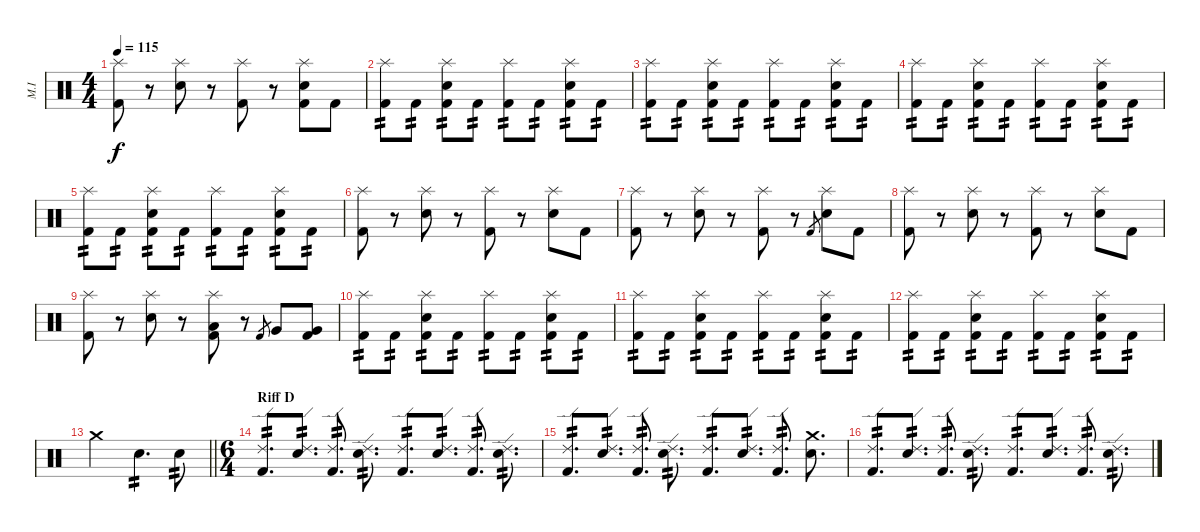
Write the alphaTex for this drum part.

\track ("M.I" "M.I") {instrument percussion}
\staff {score}
\articulation defaults
\ts (4 4)
\tempo 115
\clef neutral
\ks c
("Splash (hit)" "Kick (hit) 2").8{dy f} r.8 ("Splash (hit)" "Snare (hit) 2").8 r.8 ("Splash (hit)" "Kick (hit) 2").8 r.8 ("Splash (hit)" "Snare (hit) 2" "Kick (hit) 2").8 "Kick (hit) 2".8 |
("Splash (hit)" "Kick (hit) 2").8{tp 2} "Kick (hit) 2".8{tp 2} ("Splash (hit)" "Snare (hit) 2" "Kick (hit) 2").8{tp 2} "Kick (hit) 2".8{tp 2} ("Splash (hit)" "Kick (hit) 2").8{tp 2} "Kick (hit) 2".8{tp 2} ("Splash (hit)" "Snare (hit) 2" "Kick (hit) 2").8{tp 2} "Kick (hit) 2".8{tp 2} |
("Splash (hit)" "Kick (hit) 2").8{tp 2} "Kick (hit) 2".8{tp 2} ("Splash (hit)" "Snare (hit) 2" "Kick (hit) 2").8{tp 2} "Kick (hit) 2".8{tp 2} ("Splash (hit)" "Kick (hit) 2").8{tp 2} "Kick (hit) 2".8{tp 2} ("Splash (hit)" "Snare (hit) 2" "Kick (hit) 2").8{tp 2} "Kick (hit) 2".8{tp 2} |
("Splash (hit)" "Kick (hit) 2").8{tp 2} "Kick (hit) 2".8{tp 2} ("Splash (hit)" "Snare (hit) 2" "Kick (hit) 2").8{tp 2} "Kick (hit) 2".8{tp 2} ("Splash (hit)" "Kick (hit) 2").8{tp 2} "Kick (hit) 2".8{tp 2} ("Splash (hit)" "Snare (hit) 2" "Kick (hit) 2").8{tp 2} "Kick (hit) 2".8{tp 2} |
("Splash (hit)" "Kick (hit) 2").8{tp 2} "Kick (hit) 2".8{tp 2} ("Splash (hit)" "Snare (hit) 2" "Kick (hit) 2").8{tp 2} "Kick (hit) 2".8{tp 2} ("Splash (hit)" "Kick (hit) 2").8{tp 2} "Kick (hit) 2".8{tp 2} ("Splash (hit)" "Snare (hit) 2" "Kick (hit) 2").8{tp 2} "Kick (hit) 2".8{tp 2} |
("Splash (hit)" "Kick (hit) 2").8 r.8 ("Splash (hit)" "Snare (hit) 2").8 r.8 ("Splash (hit)" "Kick (hit) 2").8 r.8 ("Splash (hit)" "Snare (hit) 2").8 "Kick (hit) 2".8 |
("Splash (hit)" "Kick (hit) 2").8 r.8 ("Splash (hit)" "Snare (hit) 2").8 r.8 ("Splash (hit)" "Kick (hit) 2").8 r.8 "Kick (hit) 2".8{gr} ("Splash (hit)" "Snare (hit) 2").8 "Kick (hit) 2".8 |
("Splash (hit)" "Kick (hit) 2").8 r.8 ("Splash (hit)" "Snare (hit) 2").8 r.8 ("Splash (hit)" "Kick (hit) 2").8 r.8 ("Splash (hit)" "Snare (hit) 2").8 "Kick (hit) 2".8 |
("Splash (hit)" "Kick (hit) 2").8 r.8 ("Splash (hit)" "Snare (hit) 2").8 r.8 ("Splash (hit)" "Low Tom (hit)" "Kick (hit) 2").8 r.8 "Kick (hit) 2".8{gr} "Very Low Tom (hit)".8 ("Very Low Tom (hit)" "Kick (hit) 2").8 |
("Splash (hit)" "Kick (hit) 2").8{tp 2} "Kick (hit) 2".8{tp 2} ("Splash (hit)" "Snare (hit) 2" "Kick (hit) 2").8{tp 2} "Kick (hit) 2".8{tp 2} ("Splash (hit)" "Kick (hit) 2").8{tp 2} "Kick (hit) 2".8{tp 2} ("Splash (hit)" "Snare (hit) 2" "Kick (hit) 2").8{tp 2} "Kick (hit) 2".8{tp 2} |
("Splash (hit)" "Kick (hit) 2").8{tp 2} "Kick (hit) 2".8{tp 2} ("Splash (hit)" "Snare (hit) 2" "Kick (hit) 2").8{tp 2} "Kick (hit) 2".8{tp 2} ("Splash (hit)" "Kick (hit) 2").8{tp 2} "Kick (hit) 2".8{tp 2} ("Splash (hit)" "Snare (hit) 2" "Kick (hit) 2").8{tp 2} "Kick (hit) 2".8{tp 2} |
("Splash (hit)" "Kick (hit) 2").8{tp 2} "Kick (hit) 2".8{tp 2} ("Splash (hit)" "Snare (hit) 2" "Kick (hit) 2").8{tp 2} "Kick (hit) 2".8{tp 2} ("Splash (hit)" "Kick (hit) 2").8{tp 2} "Kick (hit) 2".8{tp 2} ("Splash (hit)" "Snare (hit) 2" "Kick (hit) 2").8{tp 2} "Kick (hit) 2".8{tp 2} |
\barLineRight lightlight "Crash medium (hit)".2 "Snare (hit) 2".4{d tp 2} "Snare (hit) 2".8{tp 2}
|
\ts (6 4)
\section ("" "Riff D")
("Ride (edge) 2" "Kick (hit) 2").8{d tp 2} ("Ride (edge) 2" "Snare (hit) 2").8{d tp 2} ("Ride (edge) 2" "Kick (hit) 2").8{d tp 2} ("Ride (edge) 2" "Snare (hit) 2").8{d tp 2} ("Ride (edge) 2" "Kick (hit) 2").8{d tp 2} ("Ride (edge) 2" "Snare (hit) 2").8{d tp 2} ("Ride (edge) 2" "Kick (hit) 2").8{d tp 2} ("Ride (edge) 2" "Snare (hit) 2").8{d tp 2} |
("Ride (edge) 2" "Kick (hit) 2").8{d tp 2} ("Ride (edge) 2" "Snare (hit) 2").8{d tp 2} ("Ride (edge) 2" "Kick (hit) 2").8{d tp 2} ("Ride (edge) 2" "Snare (hit) 2").8{d tp 2} ("Ride (edge) 2" "Kick (hit) 2").8{d tp 2} ("Ride (edge) 2" "Snare (hit) 2").8{d tp 2} ("Ride (edge) 2" "Kick (hit) 2").8{d tp 2} ("Crash medium (hit)" "Snare (hit) 2").8{d} |
("Ride (edge) 2" "Kick (hit) 2").8{d tp 2} ("Ride (edge) 2" "Snare (hit) 2").8{d tp 2} ("Ride (edge) 2" "Kick (hit) 2").8{d tp 2} ("Ride (edge) 2" "Snare (hit) 2").8{d tp 2} ("Ride (edge) 2" "Kick (hit) 2").8{d tp 2} ("Ride (edge) 2" "Snare (hit) 2").8{d tp 2} ("Ride (edge) 2" "Kick (hit) 2").8{d tp 2} ("Ride (edge) 2" "Snare (hit) 2").8{d tp 2}
